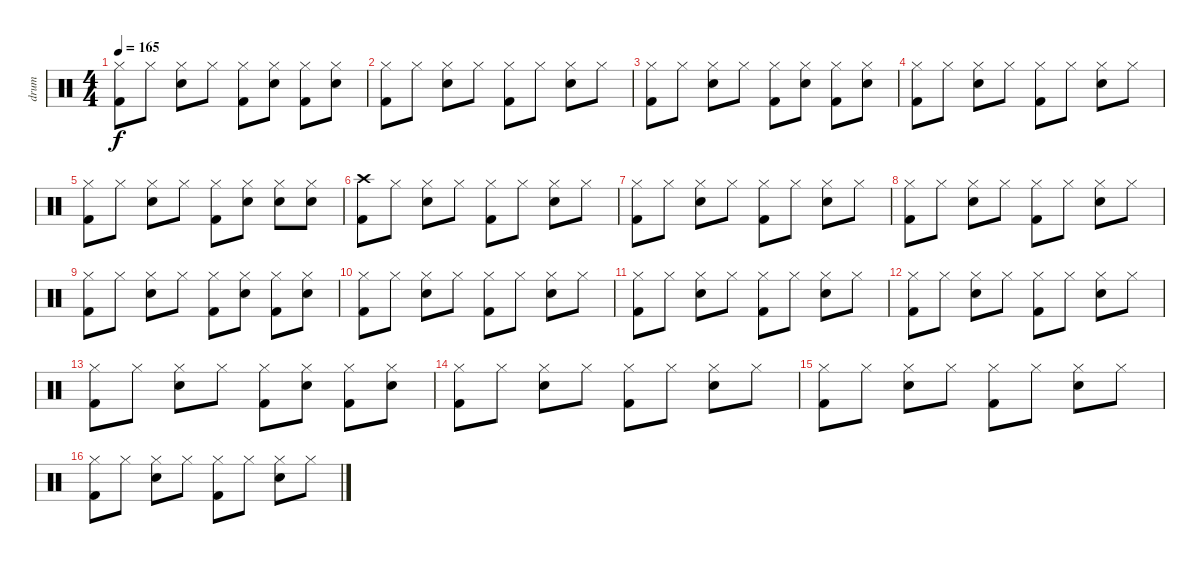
\track ("drum" "drum") {instrument percussion}
\staff {score}
\articulation defaults
\ts (4 4)
\tempo 165
\clef neutral
\ks c
("Hi-Hat (closed)" "Kick (hit) 2").8{dy f} "Hi-Hat (closed)".8 ("Hi-Hat (closed)" "Snare (hit) 2").8 "Hi-Hat (closed)".8 ("Hi-Hat (closed)" "Kick (hit) 2").8 ("Hi-Hat (closed)" "Snare (hit) 2").8 ("Hi-Hat (closed)" "Kick (hit) 2").8 ("Hi-Hat (closed)" "Snare (hit) 2").8 |
("Hi-Hat (closed)" "Kick (hit) 2").8 "Hi-Hat (closed)".8 ("Hi-Hat (closed)" "Snare (hit) 2").8 "Hi-Hat (closed)".8 ("Hi-Hat (closed)" "Kick (hit) 2").8 "Hi-Hat (closed)".8 ("Hi-Hat (closed)" "Snare (hit) 2").8 "Hi-Hat (closed)".8 |
("Hi-Hat (closed)" "Kick (hit) 2").8 "Hi-Hat (closed)".8 ("Hi-Hat (closed)" "Snare (hit) 2").8 "Hi-Hat (closed)".8 ("Hi-Hat (closed)" "Kick (hit) 2").8 ("Hi-Hat (closed)" "Snare (hit) 2").8 ("Hi-Hat (closed)" "Kick (hit) 2").8 ("Hi-Hat (closed)" "Snare (hit) 2").8 |
("Hi-Hat (closed)" "Kick (hit) 2").8 "Hi-Hat (closed)".8 ("Hi-Hat (closed)" "Snare (hit) 2").8 "Hi-Hat (closed)".8 ("Hi-Hat (closed)" "Kick (hit) 2").8 "Hi-Hat (closed)".8 ("Hi-Hat (closed)" "Snare (hit) 2").8 "Hi-Hat (closed)".8 |
("Hi-Hat (closed)" "Kick (hit) 2").8 "Hi-Hat (closed)".8 ("Hi-Hat (closed)" "Snare (hit) 2").8 "Hi-Hat (closed)".8 ("Hi-Hat (closed)" "Kick (hit) 2").8 ("Hi-Hat (closed)" "Snare (hit) 2").8 ("Hi-Hat (closed)" "Snare (hit) 2").8 ("Hi-Hat (closed)" "Snare (hit) 2").8 |
("Crash high (hit)" "Kick (hit) 2").8 "Hi-Hat (closed)".8 ("Hi-Hat (closed)" "Snare (hit) 2").8 "Hi-Hat (closed)".8 ("Hi-Hat (closed)" "Kick (hit) 2").8 "Hi-Hat (closed)".8 ("Hi-Hat (closed)" "Snare (hit) 2").8 "Hi-Hat (closed)".8 |
("Hi-Hat (closed)" "Kick (hit) 2").8 "Hi-Hat (closed)".8 ("Hi-Hat (closed)" "Snare (hit) 2").8 "Hi-Hat (closed)".8 ("Hi-Hat (closed)" "Kick (hit) 2").8 "Hi-Hat (closed)".8 ("Hi-Hat (closed)" "Snare (hit) 2").8 "Hi-Hat (closed)".8 |
("Hi-Hat (closed)" "Kick (hit) 2").8 "Hi-Hat (closed)".8 ("Hi-Hat (closed)" "Snare (hit) 2").8 "Hi-Hat (closed)".8 ("Hi-Hat (closed)" "Kick (hit) 2").8 "Hi-Hat (closed)".8 ("Hi-Hat (closed)" "Snare (hit) 2").8 "Hi-Hat (closed)".8 |
("Hi-Hat (closed)" "Kick (hit) 2").8 "Hi-Hat (closed)".8 ("Hi-Hat (closed)" "Snare (hit) 2").8 "Hi-Hat (closed)".8 ("Hi-Hat (closed)" "Kick (hit) 2").8 ("Hi-Hat (closed)" "Snare (hit) 2").8 ("Hi-Hat (closed)" "Kick (hit) 2").8 ("Hi-Hat (closed)" "Snare (hit) 2").8 |
("Hi-Hat (closed)" "Kick (hit) 2").8 "Hi-Hat (closed)".8 ("Hi-Hat (closed)" "Snare (hit) 2").8 "Hi-Hat (closed)".8 ("Hi-Hat (closed)" "Kick (hit) 2").8 "Hi-Hat (closed)".8 ("Hi-Hat (closed)" "Snare (hit) 2").8 "Hi-Hat (closed)".8 |
("Hi-Hat (closed)" "Kick (hit) 2").8 "Hi-Hat (closed)".8 ("Hi-Hat (closed)" "Snare (hit) 2").8 "Hi-Hat (closed)".8 ("Hi-Hat (closed)" "Kick (hit) 2").8 "Hi-Hat (closed)".8 ("Hi-Hat (closed)" "Snare (hit) 2").8 "Hi-Hat (closed)".8 |
("Hi-Hat (closed)" "Kick (hit) 2").8 "Hi-Hat (closed)".8 ("Hi-Hat (closed)" "Snare (hit) 2").8 "Hi-Hat (closed)".8 ("Hi-Hat (closed)" "Kick (hit) 2").8 "Hi-Hat (closed)".8 ("Hi-Hat (closed)" "Snare (hit) 2").8 "Hi-Hat (closed)".8 |
("Hi-Hat (closed)" "Kick (hit) 2").8 "Hi-Hat (closed)".8 ("Hi-Hat (closed)" "Snare (hit) 2").8 "Hi-Hat (closed)".8 ("Hi-Hat (closed)" "Kick (hit) 2").8 ("Hi-Hat (closed)" "Snare (hit) 2").8 ("Hi-Hat (closed)" "Kick (hit) 2").8 ("Hi-Hat (closed)" "Snare (hit) 2").8 |
("Hi-Hat (closed)" "Kick (hit) 2").8 "Hi-Hat (closed)".8 ("Hi-Hat (closed)" "Snare (hit) 2").8 "Hi-Hat (closed)".8 ("Hi-Hat (closed)" "Kick (hit) 2").8 "Hi-Hat (closed)".8 ("Hi-Hat (closed)" "Snare (hit) 2").8 "Hi-Hat (closed)".8 |
("Hi-Hat (closed)" "Kick (hit) 2").8 "Hi-Hat (closed)".8 ("Hi-Hat (closed)" "Snare (hit) 2").8 "Hi-Hat (closed)".8 ("Hi-Hat (closed)" "Kick (hit) 2").8 "Hi-Hat (closed)".8 ("Hi-Hat (closed)" "Snare (hit) 2").8 "Hi-Hat (closed)".8 |
("Hi-Hat (closed)" "Kick (hit) 2").8 "Hi-Hat (closed)".8 ("Hi-Hat (closed)" "Snare (hit) 2").8 "Hi-Hat (closed)".8 ("Hi-Hat (closed)" "Kick (hit) 2").8 "Hi-Hat (closed)".8 ("Hi-Hat (closed)" "Snare (hit) 2").8 "Hi-Hat (closed)".8
